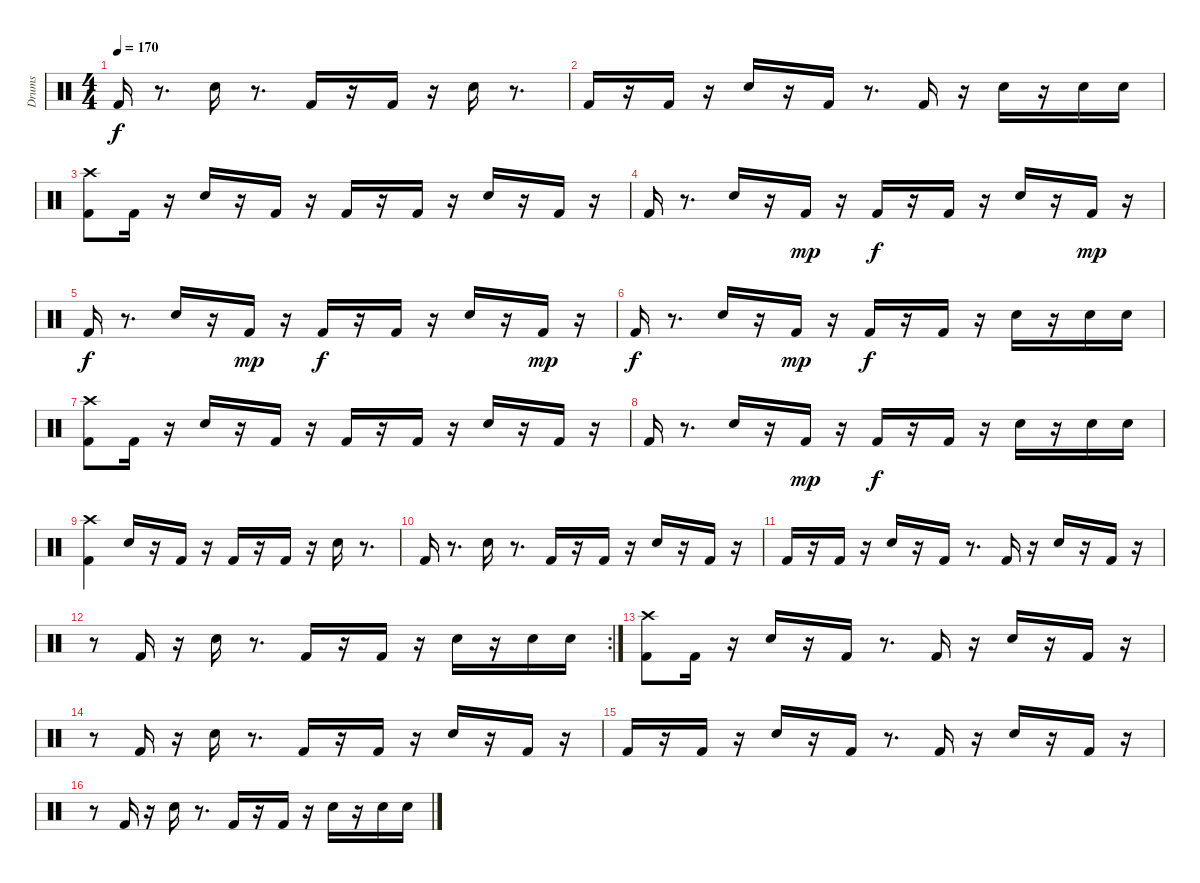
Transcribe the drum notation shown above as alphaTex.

\track ("Drums" "Drums") {instrument percussion}
\staff {score}
\articulation defaults
\ts (4 4)
\tempo 170
\clef neutral
\ks c "Kick (hit) 2".16{dy f}
r.8{d} "Electric Snare (hit)".16 r.8{d} "Kick (hit) 2".16 r.16 "Kick (hit) 2".16 r.16 "Electric Snare (hit)".16 r.8{d} |
"Kick (hit) 2".16 r.16 "Kick (hit) 2".16 r.16 "Electric Snare (hit)".16 r.16 "Kick (hit) 2".16 r.8{d} "Kick (hit) 2".16 r.16 "Electric Snare (hit)".16 r.16 "Electric Snare (hit)".16 "Electric Snare (hit)".16 |
("Crash high (hit)" "Kick (hit) 2").8 "Kick (hit) 2".16 r.16 "Electric Snare (hit)".16 r.16 "Kick (hit) 2".16 r.16 "Kick (hit) 2".16 r.16 "Kick (hit) 2".16 r.16 "Electric Snare (hit)".16 r.16 "Kick (hit) 2".16 r.16 |
"Kick (hit) 2".16 r.8{d} "Electric Snare (hit)".16 r.16 "Kick (hit) 2".16{dy mp} r.16 "Kick (hit) 2".16{dy f} r.16 "Kick (hit) 2".16 r.16 "Electric Snare (hit)".16 r.16 "Kick (hit) 2".16{dy mp} r.16 |
"Kick (hit) 2".16{dy f} r.8{d} "Electric Snare (hit)".16 r.16 "Kick (hit) 2".16{dy mp} r.16 "Kick (hit) 2".16{dy f} r.16 "Kick (hit) 2".16 r.16 "Electric Snare (hit)".16 r.16 "Kick (hit) 2".16{dy mp} r.16 |
"Kick (hit) 2".16{dy f} r.8{d} "Electric Snare (hit)".16 r.16 "Kick (hit) 2".16{dy mp} r.16 "Kick (hit) 2".16{dy f} r.16 "Kick (hit) 2".16 r.16 "Electric Snare (hit)".16 r.16 "Electric Snare (hit)".16 "Electric Snare (hit)".16 |
("Crash high (hit)" "Kick (hit) 2").8 "Kick (hit) 2".16 r.16 "Electric Snare (hit)".16 r.16 "Kick (hit) 2".16 r.16 "Kick (hit) 2".16 r.16 "Kick (hit) 2".16 r.16 "Electric Snare (hit)".16 r.16 "Kick (hit) 2".16 r.16 |
"Kick (hit) 2".16 r.8{d} "Electric Snare (hit)".16 r.16 "Kick (hit) 2".16{dy mp} r.16 "Kick (hit) 2".16{dy f} r.16 "Kick (hit) 2".16 r.16 "Electric Snare (hit)".16 r.16 "Electric Snare (hit)".16 "Electric Snare (hit)".16 |
("Crash high (hit)" "Kick (hit) 2").4 "Electric Snare (hit)".16 r.16 "Kick (hit) 2".16 r.16 "Kick (hit) 2".16 r.16 "Kick (hit) 2".16 r.16 "Electric Snare (hit)".16 r.8{d} |
"Kick (hit) 2".16 r.8{d} "Electric Snare (hit)".16 r.8{d} "Kick (hit) 2".16 r.16 "Kick (hit) 2".16 r.16 "Electric Snare (hit)".16 r.16 "Kick (hit) 2".16 r.16 |
"Kick (hit) 2".16 r.16 "Kick (hit) 2".16 r.16 "Electric Snare (hit)".16 r.16 "Kick (hit) 2".16 r.8{d} "Kick (hit) 2".16 r.16 "Electric Snare (hit)".16 r.16 "Kick (hit) 2".16 r.16 |
\rc 2
r.8 "Kick (hit) 2".16 r.16 "Electric Snare (hit)".16 r.8{d} "Kick (hit) 2".16 r.16 "Kick (hit) 2".16 r.16 "Electric Snare (hit)".16 r.16 "Electric Snare (hit)".16 "Electric Snare (hit)".16 |
("Crash high (hit)" "Kick (hit) 2").8 "Kick (hit) 2".16 r.16 "Electric Snare (hit)".16 r.16 "Kick (hit) 2".16 r.8{d} "Kick (hit) 2".16 r.16 "Electric Snare (hit)".16 r.16 "Kick (hit) 2".16 r.16 |
r.8 "Kick (hit) 2".16 r.16 "Electric Snare (hit)".16 r.8{d} "Kick (hit) 2".16 r.16 "Kick (hit) 2".16 r.16 "Electric Snare (hit)".16 r.16 "Kick (hit) 2".16 r.16 |
"Kick (hit) 2".16 r.16 "Kick (hit) 2".16 r.16 "Electric Snare (hit)".16 r.16 "Kick (hit) 2".16 r.8{d} "Kick (hit) 2".16 r.16 "Electric Snare (hit)".16 r.16 "Kick (hit) 2".16 r.16 |
r.8 "Kick (hit) 2".16 r.16 "Electric Snare (hit)".16 r.8{d} "Kick (hit) 2".16 r.16 "Kick (hit) 2".16 r.16 "Electric Snare (hit)".16 r.16 "Electric Snare (hit)".16 "Electric Snare (hit)".16
